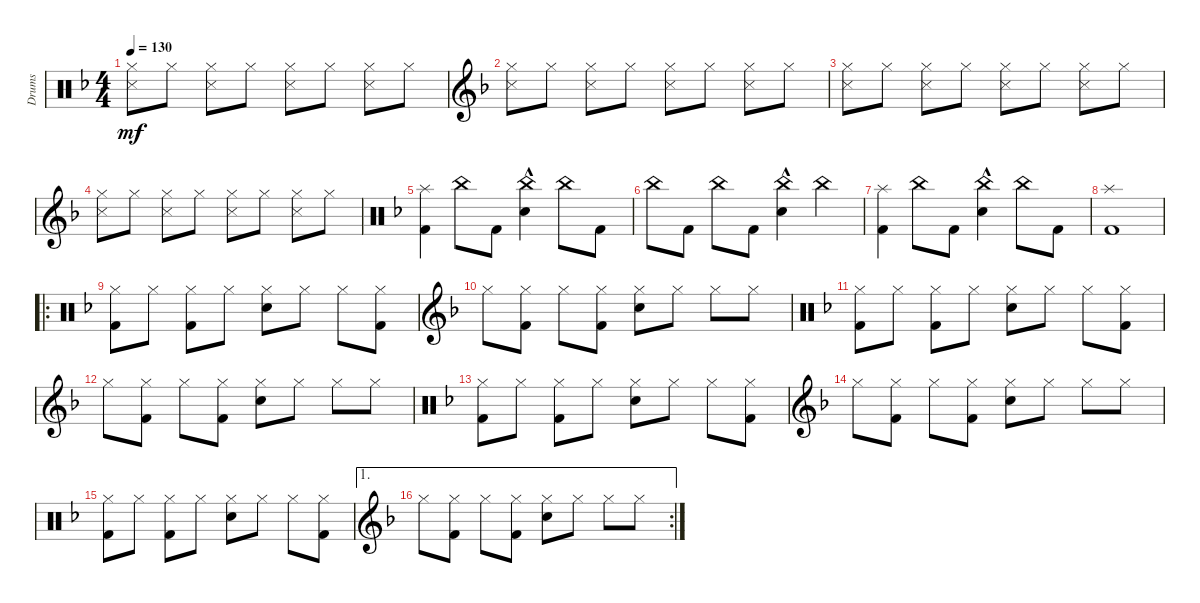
\defaultSystemsLayout 4
\bracketExtendMode groupsimilarinstruments
\otherSystemsTrackNameOrientation horizontal
\track ("Drumkit" "Drums") {instrument percussion}
\staff {score}
\articulation defaults
\ts (4 4)
\tempo 130
\clef neutral
\scale
0.333333
\ks f
("Hi-Hat (closed)"{acc forcenatural} "Snare (side stick) 3"{acc forcenatural}).8{dy mf beam Down} "Hi-Hat (closed)"{acc forcenatural}.8{beam Down} ("Hi-Hat (closed)"{acc forcenatural} "Snare (side stick) 3"{acc forcenatural}).8{beam Down} "Hi-Hat (closed)"{acc forcenatural}.8{beam Down} ("Hi-Hat (closed)"{acc forcenatural} "Snare (side stick) 3"{acc forcenatural}).8{beam Down} "Hi-Hat (closed)"{acc forcenatural}.8{beam Down} ("Hi-Hat (closed)"{acc forcenatural} "Snare (side stick) 3"{acc forcenatural}).8{beam Down} "Hi-Hat (closed)"{acc forcenatural}.8{beam Down} |
\clef g2
\scale
0.333333 ("Hi-Hat (closed)"{acc forcenatural} "Snare (side stick) 3"{acc forcenatural}).8{beam Down} "Hi-Hat (closed)"{acc forcenatural}.8{beam Down} ("Hi-Hat (closed)"{acc forcenatural} "Snare (side stick) 3"{acc forcenatural}).8{beam Down} "Hi-Hat (closed)"{acc forcenatural}.8{beam Down} ("Hi-Hat (closed)"{acc forcenatural} "Snare (side stick) 3"{acc forcenatural}).8{beam Down} "Hi-Hat (closed)"{acc forcenatural}.8{beam Down} ("Hi-Hat (closed)"{acc forcenatural} "Snare (side stick) 3"{acc forcenatural}).8{beam Down} "Hi-Hat (closed)"{acc forcenatural}.8{beam Down} |
\scale
0.333333 ("Hi-Hat (closed)"{acc forcenatural} "Snare (side stick) 3"{acc forcenatural}).8{beam Down} "Hi-Hat (closed)"{acc forcenatural}.8{beam Down} ("Hi-Hat (closed)"{acc forcenatural} "Snare (side stick) 3"{acc forcenatural}).8{beam Down} "Hi-Hat (closed)"{acc forcenatural}.8{beam Down} ("Hi-Hat (closed)"{acc forcenatural} "Snare (side stick) 3"{acc forcenatural}).8{beam Down} "Hi-Hat (closed)"{acc forcenatural}.8{beam Down} ("Hi-Hat (closed)"{acc forcenatural} "Snare (side stick) 3"{acc forcenatural}).8{beam Down} "Hi-Hat (closed)"{acc forcenatural}.8{beam Down} |
\scale
0.333333 ("Hi-Hat (closed)"{acc forcenatural} "Snare (side stick) 3"{acc forcenatural}).8{beam Down} "Hi-Hat (closed)"{acc forcenatural}.8{beam Down} ("Hi-Hat (closed)"{acc forcenatural} "Snare (side stick) 3"{acc forcenatural}).8{beam Down} "Hi-Hat (closed)"{acc forcenatural}.8{beam Down} ("Hi-Hat (closed)"{acc forcenatural} "Snare (side stick) 3"{acc forcenatural}).8{beam Down} "Hi-Hat (closed)"{acc forcenatural}.8{beam Down} ("Hi-Hat (closed)"{acc forcenatural} "Snare (side stick) 3"{acc forcenatural}).8{beam Down} "Hi-Hat (closed)"{acc forcenatural}.8{beam Down} |
\clef neutral
\scale
0.333333 ("Splash (hit)"{acc forcenatural} "Kick (hit) 2"{acc forcenatural}).4{beam Down} "China (hit)"{acc forcenatural}.8{beam Down} "Kick (hit) 2"{acc forcenatural}.8{beam Down} ("Snare (hit) 2"{hac acc forcenatural} "China (hit)"{acc forcenatural}).4{beam Down} "China (hit)"{acc forcenatural}.8{beam Down} "Kick (hit) 2"{acc forcenatural}.8{beam Down} |
\scale
0.333333 "China (hit)"{acc forcenatural}.8{beam Down} "Kick (hit) 2"{acc forcenatural}.8{beam Down} "China (hit)"{acc forcenatural}.8{beam Down} "Kick (hit) 2"{acc forcenatural}.8{beam Down} ("China (hit)"{acc forcenatural} "Snare (hit) 2"{hac acc forcenatural}).4{beam Down} "China (hit)"{acc forcenatural}.4{beam Down} |
\scale
0.333333 ("Splash (hit)"{acc forcenatural} "Kick (hit) 2"{acc forcenatural}).4{beam Down} "China (hit)"{acc forcenatural}.8{beam Down} "Kick (hit) 2"{acc forcenatural}.8{beam Down} ("Snare (hit) 2"{hac acc forcenatural} "China (hit)"{acc forcenatural}).4{beam Down} "China (hit)"{acc forcenatural}.8{beam Down} "Kick (hit) 2"{acc forcenatural}.8{beam Down} |
\scale
0.311111 ("Kick (hit) 2"{acc forcenatural} "Splash (hit)"{acc forcenatural}).1{beam Down} |
\ro
\scale
0.377778 ("Hi-Hat (closed)"{acc forcenatural} "Kick (hit) 2"{acc forcenatural}).8{beam Down} "Hi-Hat (closed)"{acc forcenatural}.8{beam Down} ("Hi-Hat (closed)"{acc forcenatural} "Kick (hit) 2"{acc forcenatural}).8{beam Down} "Hi-Hat (closed)"{acc forcenatural}.8{beam Down} ("Hi-Hat (closed)"{acc forcenatural} "Snare (hit) 2"{acc forcenatural}).8{beam Down} "Hi-Hat (closed)"{acc forcenatural}.8{beam Down} "Hi-Hat (closed)"{acc forcenatural}.8{beam Down} ("Hi-Hat (closed)"{acc forcenatural} "Kick (hit) 2"{acc forcenatural}).8{beam Down} |
\clef g2
\scale
0.311111 "Hi-Hat (closed)"{acc forcenatural}.8{beam Down} ("Hi-Hat (closed)"{acc forcenatural} "Kick (hit) 2"{acc forcenatural}).8{beam Down} "Hi-Hat (closed)"{acc forcenatural}.8{beam Down} ("Hi-Hat (closed)"{acc forcenatural} "Kick (hit) 2"{acc forcenatural}).8{beam Down} ("Hi-Hat (closed)"{acc forcenatural} "Snare (hit) 2"{acc forcenatural}).8{beam Down} "Hi-Hat (closed)"{acc forcenatural}.8{beam Down} "Hi-Hat (closed)"{acc forcenatural}.8{beam Down} "Hi-Hat (closed)"{acc forcenatural}.8{beam Down} |
\clef neutral
\scale
0.333333 ("Hi-Hat (closed)"{acc forcenatural} "Kick (hit) 2"{acc forcenatural}).8{beam Down} "Hi-Hat (closed)"{acc forcenatural}.8{beam Down} ("Hi-Hat (closed)"{acc forcenatural} "Kick (hit) 2"{acc forcenatural}).8{beam Down} "Hi-Hat (closed)"{acc forcenatural}.8{beam Down} ("Hi-Hat (closed)"{acc forcenatural} "Snare (hit) 2"{acc forcenatural}).8{beam Down} "Hi-Hat (closed)"{acc forcenatural}.8{beam Down} "Hi-Hat (closed)"{acc forcenatural}.8{beam Down} ("Hi-Hat (closed)"{acc forcenatural} "Kick (hit) 2"{acc forcenatural}).8{beam Down} |
\clef g2
\scale
0.333333 "Hi-Hat (closed)"{acc forcenatural}.8{beam Down} ("Hi-Hat (closed)"{acc forcenatural} "Kick (hit) 2"{acc forcenatural}).8{beam Down} "Hi-Hat (closed)"{acc forcenatural}.8{beam Down} ("Hi-Hat (closed)"{acc forcenatural} "Kick (hit) 2"{acc forcenatural}).8{beam Down} ("Hi-Hat (closed)"{acc forcenatural} "Snare (hit) 2"{acc forcenatural}).8{beam Down} "Hi-Hat (closed)"{acc forcenatural}.8{beam Down} "Hi-Hat (closed)"{acc forcenatural}.8{beam Down} "Hi-Hat (closed)"{acc forcenatural}.8{beam Down} |
\clef neutral
\scale
0.333333 ("Hi-Hat (closed)"{acc forcenatural} "Kick (hit) 2"{acc forcenatural}).8{beam Down} "Hi-Hat (closed)"{acc forcenatural}.8{beam Down} ("Hi-Hat (closed)"{acc forcenatural} "Kick (hit) 2"{acc forcenatural}).8{beam Down} "Hi-Hat (closed)"{acc forcenatural}.8{beam Down} ("Hi-Hat (closed)"{acc forcenatural} "Snare (hit) 2"{acc forcenatural}).8{beam Down} "Hi-Hat (closed)"{acc forcenatural}.8{beam Down} "Hi-Hat (closed)"{acc forcenatural}.8{beam Down} ("Hi-Hat (closed)"{acc forcenatural} "Kick (hit) 2"{acc forcenatural}).8{beam Down} |
\clef g2
\scale
0.321839 "Hi-Hat (closed)"{acc forcenatural}.8{beam Down} ("Hi-Hat (closed)"{acc forcenatural} "Kick (hit) 2"{acc forcenatural}).8{beam Down} "Hi-Hat (closed)"{acc forcenatural}.8{beam Down} ("Hi-Hat (closed)"{acc forcenatural} "Kick (hit) 2"{acc forcenatural}).8{beam Down} ("Hi-Hat (closed)"{acc forcenatural} "Snare (hit) 2"{acc forcenatural}).8{beam Down} "Hi-Hat (closed)"{acc forcenatural}.8{beam Down} "Hi-Hat (closed)"{acc forcenatural}.8{beam Down} "Hi-Hat (closed)"{acc forcenatural}.8{beam Down} |
\clef neutral
\scale
0.321839 ("Hi-Hat (closed)"{acc forcenatural} "Kick (hit) 2"{acc forcenatural}).8{beam Down} "Hi-Hat (closed)"{acc forcenatural}.8{beam Down} ("Hi-Hat (closed)"{acc forcenatural} "Kick (hit) 2"{acc forcenatural}).8{beam Down} "Hi-Hat (closed)"{acc forcenatural}.8{beam Down} ("Hi-Hat (closed)"{acc forcenatural} "Snare (hit) 2"{acc forcenatural}).8{beam Down} "Hi-Hat (closed)"{acc forcenatural}.8{beam Down} "Hi-Hat (closed)"{acc forcenatural}.8{beam Down} ("Hi-Hat (closed)"{acc forcenatural} "Kick (hit) 2"{acc forcenatural}).8{beam Down} |
\ae 1
\rc 2
\clef g2
\scale
0.356322 "Hi-Hat (closed)"{acc forcenatural}.8{beam Down} ("Hi-Hat (closed)"{acc forcenatural} "Kick (hit) 2"{acc forcenatural}).8{beam Down} "Hi-Hat (closed)"{acc forcenatural}.8{beam Down} ("Hi-Hat (closed)"{acc forcenatural} "Kick (hit) 2"{acc forcenatural}).8{beam Down} ("Hi-Hat (closed)"{acc forcenatural} "Snare (hit) 2"{acc forcenatural}).8{beam Down} "Hi-Hat (closed)"{acc forcenatural}.8{beam Down} "Hi-Hat (closed)"{acc forcenatural}.8{beam Down} "Hi-Hat (closed)"{acc forcenatural}.8{beam Down}
